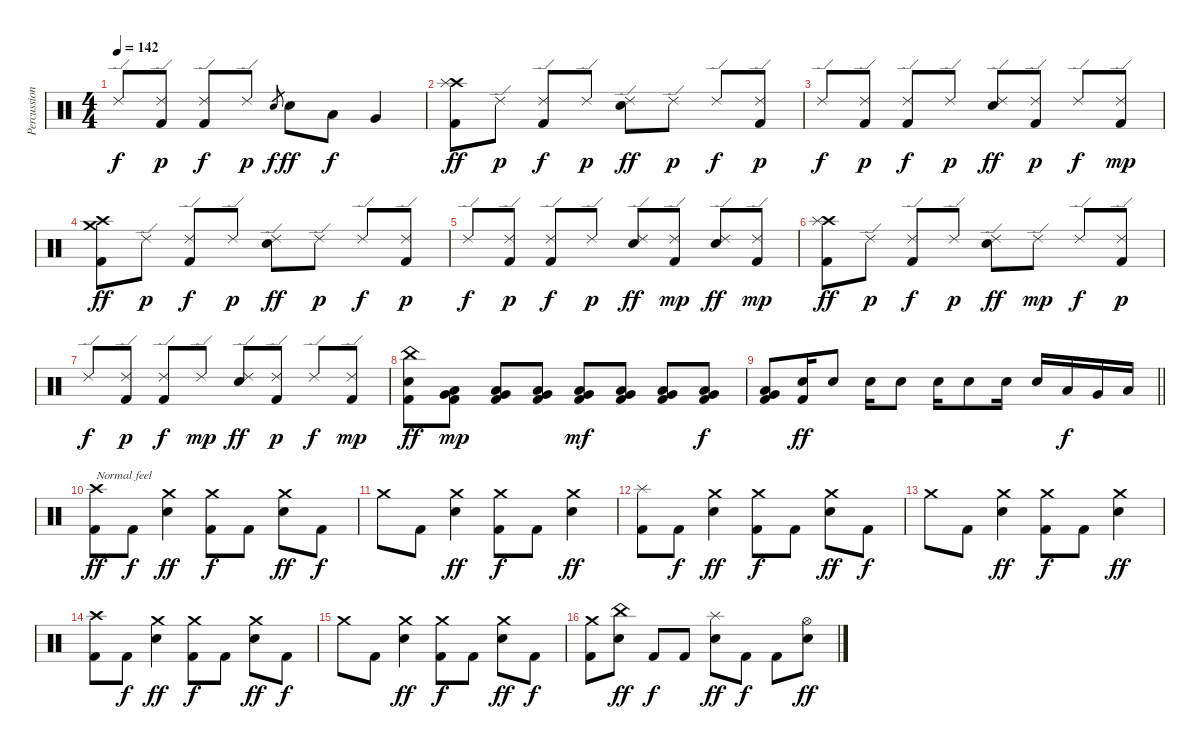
\track ("Percussion" "Percussion") {instrument percussion}
\staff {score}
\articulation defaults
\ts (4 4)
\tempo 142
\clef neutral
\ks c "Ride (edge) 2".8{dy f}
("Ride (edge) 2" "Kick (hit) 2").8{dy p} ("Ride (edge) 2" "Kick (hit) 2").8{dy f} "Ride (edge) 2".8{dy p} "Snare (hit) 2".8{gr dy f} "Snare (hit) 2".8{dy ff} "Low Tom (hit)".8{dy f} "Very Low Tom (hit)".4 |
("Crash high (hit)" "Splash (hit)" "Kick (hit) 2").8{dy ff} "Ride (edge) 2".8{dy p} ("Ride (edge) 2" "Kick (hit) 2").8{dy f} "Ride (edge) 2".8{dy p} ("Ride (edge) 2" "Snare (hit) 2").8{dy ff} "Ride (edge) 2".8{dy p} "Ride (edge) 2".8{dy f} ("Ride (edge) 2" "Kick (hit) 2").8{dy p} |
"Ride (edge) 2".8{dy f} ("Ride (edge) 2" "Kick (hit) 2").8{dy p} ("Ride (edge) 2" "Kick (hit) 2").8{dy f} "Ride (edge) 2".8{dy p} ("Ride (edge) 2" "Snare (hit) 2").8{dy ff} ("Ride (edge) 2" "Kick (hit) 2").8{dy p} "Ride (edge) 2".8{dy f} ("Ride (edge) 2" "Kick (hit) 2").8{dy mp} |
("Crash high (hit)" "Crash medium (hit)" "Kick (hit) 2").8{dy ff} "Ride (edge) 2".8{dy p} ("Ride (edge) 2" "Kick (hit) 2").8{dy f} "Ride (edge) 2".8{dy p} ("Ride (edge) 2" "Snare (hit) 2").8{dy ff} "Ride (edge) 2".8{dy p} "Ride (edge) 2".8{dy f} ("Ride (edge) 2" "Kick (hit) 2").8{dy p} |
"Ride (edge) 2".8{dy f} ("Ride (edge) 2" "Kick (hit) 2").8{dy p} ("Ride (edge) 2" "Kick (hit) 2").8{dy f} "Ride (edge) 2".8{dy p} ("Ride (edge) 2" "Snare (hit) 2").8{dy ff} ("Ride (edge) 2" "Kick (hit) 2").8{dy mp} ("Ride (edge) 2" "Snare (hit) 2").8{dy ff} ("Ride (edge) 2" "Kick (hit) 2").8{dy mp} |
("Crash high (hit)" "Splash (hit)" "Kick (hit) 2").8{dy ff} "Ride (edge) 2".8{dy p} ("Ride (edge) 2" "Kick (hit) 2").8{dy f} "Ride (edge) 2".8{dy p} ("Ride (edge) 2" "Snare (hit) 2").8{dy ff} "Ride (edge) 2".8{dy mp} "Ride (edge) 2".8{dy f} ("Ride (edge) 2" "Kick (hit) 2").8{dy p} |
"Ride (edge) 2".8{dy f} ("Ride (edge) 2" "Kick (hit) 2").8{dy p} ("Ride (edge) 2" "Kick (hit) 2").8{dy f} "Ride (edge) 2".8{dy mp} ("Ride (edge) 2" "Snare (hit) 2").8{dy ff} ("Ride (edge) 2" "Kick (hit) 2").8{dy p} "Ride (edge) 2".8{dy f} ("Ride (edge) 2" "Kick (hit) 2").8{dy mp} |
("China (hit)" "Snare (hit) 2" "Kick (hit) 2").8{dy ff} ("Very Low Tom (hit)" "Low Tom (hit)" "Kick (hit) 2").8{dy mp} ("Very Low Tom (hit)" "Low Tom (hit)" "Kick (hit) 2").8 ("Very Low Tom (hit)" "Low Tom (hit)" "Kick (hit) 2").8 ("Very Low Tom (hit)" "Low Tom (hit)" "Kick (hit) 2").8{dy mf} ("Very Low Tom (hit)" "Low Tom (hit)" "Kick (hit) 2").8 ("Very Low Tom (hit)" "Low Tom (hit)" "Kick (hit) 2").8 ("Very Low Tom (hit)" "Low Tom (hit)" "Kick (hit) 2").8{dy f} |
\barLineRight lightlight
("Very Low Tom (hit)" "Low Tom (hit)" "Kick (hit) 2").8 ("Snare (hit) 2" "Kick (hit) 2").16{dy ff} "Snare (hit) 2".8 "Snare (hit) 2".16 "Snare (hit) 2".8 "Snare (hit) 2".16 "Snare (hit) 2".8 "Snare (hit) 2".16 "Snare (hit) 2".16 "Low Tom (hit)".16{dy f} "Very Low Tom (hit)".16 "Low Floor Tom (hit)".16 |
("Crash high (hit)" "Kick (hit) 2").8{txt "Normal feel" dy ff} "Kick (hit) 2".8{dy f} ("Crash medium (hit)" "Snare (hit) 2").4{dy ff} ("Crash medium (hit)" "Kick (hit) 2").8{dy f} "Kick (hit) 2".8 ("Crash medium (hit)" "Snare (hit) 2").8{dy ff} "Kick (hit) 2".8{dy f} |
"Crash medium (hit)".8 "Kick (hit) 2".8 ("Crash medium (hit)" "Snare (hit) 2").4{dy ff} ("Crash medium (hit)" "Kick (hit) 2").8{dy f} "Kick (hit) 2".8 ("Crash medium (hit)" "Snare (hit) 2").4{dy ff} |
("Splash (hit)" "Kick (hit) 2").8 "Kick (hit) 2".8{dy f} ("Crash medium (hit)" "Snare (hit) 2").4{dy ff} ("Crash medium (hit)" "Kick (hit) 2").8{dy f} "Kick (hit) 2".8 ("Crash medium (hit)" "Snare (hit) 2").8{dy ff} "Kick (hit) 2".8{dy f} |
"Crash medium (hit)".8 "Kick (hit) 2".8 ("Crash medium (hit)" "Snare (hit) 2").4{dy ff} ("Crash medium (hit)" "Kick (hit) 2").8{dy f} "Kick (hit) 2".8 ("Crash medium (hit)" "Snare (hit) 2").4{dy ff} |
("Crash high (hit)" "Kick (hit) 2").8 "Kick (hit) 2".8{dy f} ("Crash medium (hit)" "Snare (hit) 2").4{dy ff} ("Crash medium (hit)" "Kick (hit) 2").8{dy f} "Kick (hit) 2".8 ("Crash medium (hit)" "Snare (hit) 2").8{dy ff} "Kick (hit) 2".8{dy f} |
"Crash medium (hit)".8 "Kick (hit) 2".8 ("Crash medium (hit)" "Snare (hit) 2").4{dy ff} ("Crash medium (hit)" "Kick (hit) 2").8{dy f} "Kick (hit) 2".8 ("Crash medium (hit)" "Snare (hit) 2").8{dy ff} "Kick (hit) 2".8{dy f} |
("Crash medium (hit)" "Kick (hit) 2").8 ("China (hit)" "Snare (hit) 2").8{dy ff} "Kick (hit) 2".8{dy f} "Kick (hit) 2".8 ("Splash (hit)" "Snare (hit) 2").8{dy ff} "Kick (hit) 2".8{dy f} "Kick (hit) 2".8 ("Hi-Hat (open)" "Snare (hit) 2").8{dy ff}
